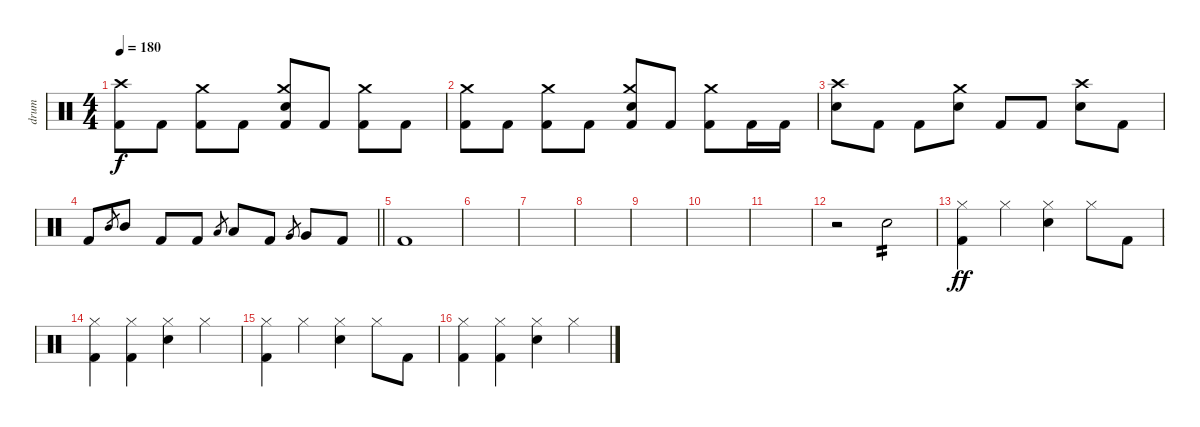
\track ("drum" "drum") {instrument percussion}
\staff {score}
\articulation defaults
\ts (4 4)
\tempo 180
\clef neutral
\ks c
("Crash high (hit)" "Kick (hit) 2").8{dy f} "Kick (hit) 2".8 ("Crash medium (hit)" "Kick (hit) 2").8 "Kick (hit) 2".8 ("Crash medium (hit)" "Snare (hit) 2" "Kick (hit) 2").8 "Kick (hit) 2".8 ("Crash medium (hit)" "Kick (hit) 2").8 "Kick (hit) 2".8 |
("Crash medium (hit)" "Kick (hit) 2").8 "Kick (hit) 2".8 ("Crash medium (hit)" "Kick (hit) 2").8 "Kick (hit) 2".8 ("Crash medium (hit)" "Snare (hit) 2" "Kick (hit) 2").8 "Kick (hit) 2".8 ("Crash medium (hit)" "Kick (hit) 2").8 "Kick (hit) 2".16 "Kick (hit) 2".16 |
("Crash high (hit)" "Snare (hit) 2").8 "Kick (hit) 2".8 "Kick (hit) 2".8 ("Crash medium (hit)" "Snare (hit) 2").8 "Kick (hit) 2".8 "Kick (hit) 2".8 ("Crash high (hit)" "Snare (hit) 2").8 "Kick (hit) 2".8 |
\barLineRight lightlight "Kick (hit) 2".8 "Mid Tom (hit)".8{gr} "Mid Tom (hit)".8 "Kick (hit) 2".8 "Kick (hit) 2".8 "Low Tom (hit)".8{gr} "Low Tom (hit)".8 "Kick (hit) 2".8 "Very Low Tom (hit)".8{gr} "Very Low Tom (hit)".8 "Kick (hit) 2".8
|
"Kick (hit) 2".1 |
|
|
|
|
|
|
r.2 "Snare (hit) 2".2{tp 2} |
("Hi-Hat (closed)" "Kick (hit) 2").4{dy ff} "Hi-Hat (closed)".4 ("Hi-Hat (closed)" "Snare (hit) 2").4 "Hi-Hat (closed)".8 "Kick (hit) 2".8 |
("Hi-Hat (closed)" "Kick (hit) 2").4 ("Hi-Hat (closed)" "Kick (hit) 2").4 ("Hi-Hat (closed)" "Snare (hit) 2").4 "Hi-Hat (closed)".4 |
("Hi-Hat (closed)" "Kick (hit) 2").4 "Hi-Hat (closed)".4 ("Hi-Hat (closed)" "Snare (hit) 2").4 "Hi-Hat (closed)".8 "Kick (hit) 2".8 |
("Hi-Hat (closed)" "Kick (hit) 2").4 ("Hi-Hat (closed)" "Kick (hit) 2").4 ("Hi-Hat (closed)" "Snare (hit) 2").4 "Hi-Hat (closed)".4
